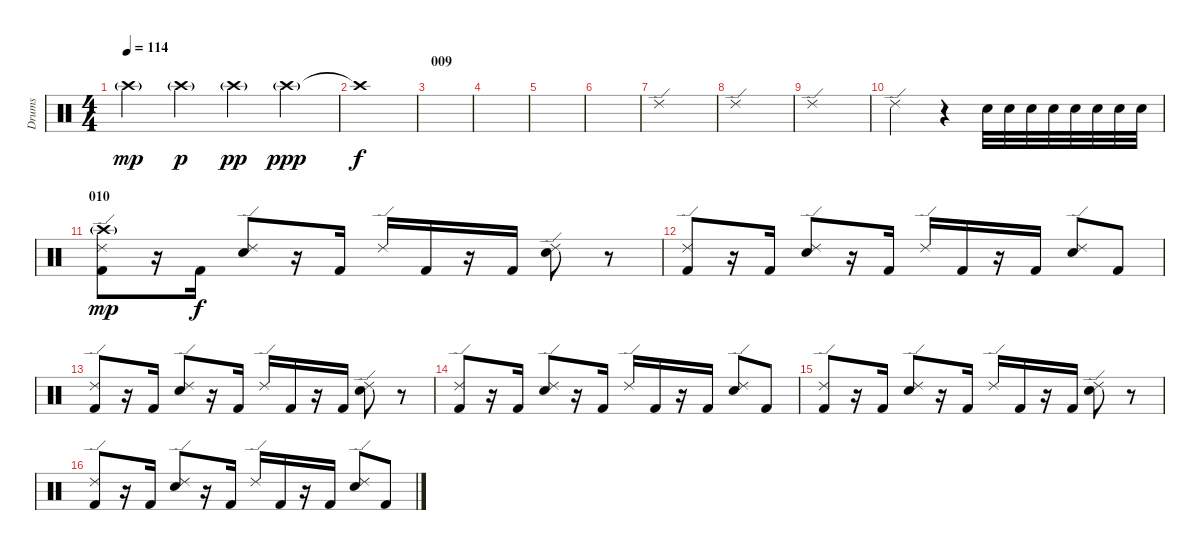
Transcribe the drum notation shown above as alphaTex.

\track ("Drums" "Drums") {instrument percussion}
\staff {score}
\articulation defaults
\ts (4 4)
\tempo 114
\clef neutral
\ks c "Crash high (hit)"{g}.4{dy mp} "Crash high (hit)"{g}.4{dy p} "Crash high (hit)"{g}.4{dy pp} "Crash high (hit)"{g}.4{dy ppp}
|
"Crash high (hit)"{t}.1{dy f} |
\section ("" "009")
|
|
|
|
"Ride (edge) 2".1 |
"Ride (edge) 2".1 |
"Ride (edge) 2".1 |
"Ride (edge) 2".2 r.4 "Electric Snare (hit)".32 "Electric Snare (hit)".32 "Electric Snare (hit)".32 "Electric Snare (hit)".32 "Electric Snare (hit)".32 "Electric Snare (hit)".32 "Electric Snare (hit)".32 "Electric Snare (hit)".32 |
\section ("" "010")
("Ride (edge) 2" "Crash high (hit)"{g} "Kick (hit) 2").8{dy mp} r.16 "Kick (hit) 2".16{dy f} ("Ride (edge) 2" "Electric Snare (hit)").8 r.16 "Kick (hit) 2".16 "Ride (edge) 2".16 "Kick (hit) 2".16 r.16 "Kick (hit) 2".16 ("Ride (edge) 2" "Electric Snare (hit)").8 r.8 |
("Ride (edge) 2" "Kick (hit) 2").8 r.16 "Kick (hit) 2".16 ("Ride (edge) 2" "Electric Snare (hit)").8 r.16 "Kick (hit) 2".16 "Ride (edge) 2".16 "Kick (hit) 2".16 r.16 "Kick (hit) 2".16 ("Ride (edge) 2" "Electric Snare (hit)").8 "Kick (hit) 2".8 |
("Ride (edge) 2" "Kick (hit) 2").8 r.16 "Kick (hit) 2".16 ("Ride (edge) 2" "Electric Snare (hit)").8 r.16 "Kick (hit) 2".16 "Ride (edge) 2".16 "Kick (hit) 2".16 r.16 "Kick (hit) 2".16 ("Ride (edge) 2" "Electric Snare (hit)").8 r.8 |
("Ride (edge) 2" "Kick (hit) 2").8 r.16 "Kick (hit) 2".16 ("Ride (edge) 2" "Electric Snare (hit)").8 r.16 "Kick (hit) 2".16 "Ride (edge) 2".16 "Kick (hit) 2".16 r.16 "Kick (hit) 2".16 ("Ride (edge) 2" "Electric Snare (hit)").8 "Kick (hit) 2".8 |
("Ride (edge) 2" "Kick (hit) 2").8 r.16 "Kick (hit) 2".16 ("Ride (edge) 2" "Electric Snare (hit)").8 r.16 "Kick (hit) 2".16 "Ride (edge) 2".16 "Kick (hit) 2".16 r.16 "Kick (hit) 2".16 ("Ride (edge) 2" "Electric Snare (hit)").8 r.8 |
("Ride (edge) 2" "Kick (hit) 2").8 r.16 "Kick (hit) 2".16 ("Ride (edge) 2" "Electric Snare (hit)").8 r.16 "Kick (hit) 2".16 "Ride (edge) 2".16 "Kick (hit) 2".16 r.16 "Kick (hit) 2".16 ("Ride (edge) 2" "Electric Snare (hit)").8 "Kick (hit) 2".8
